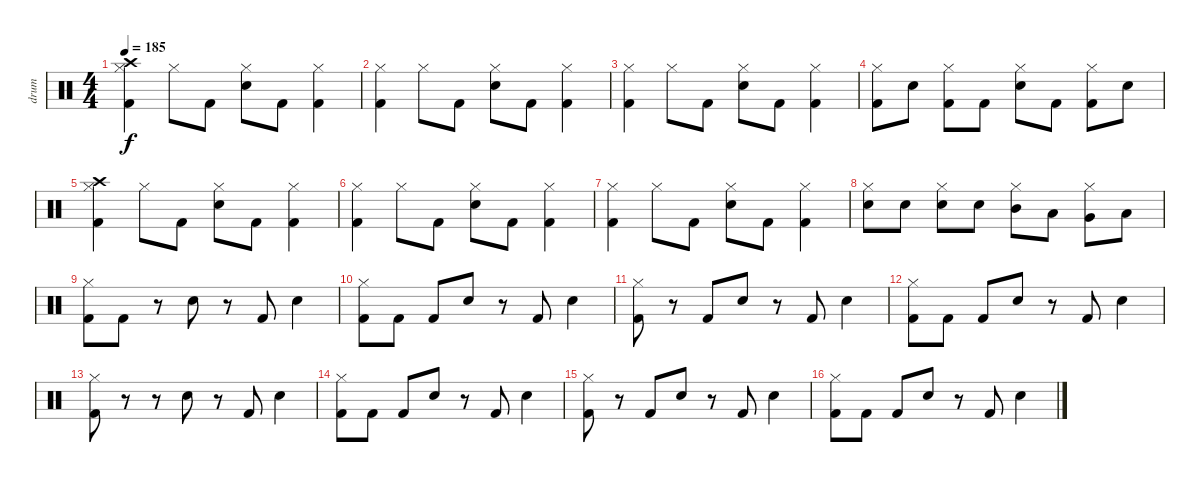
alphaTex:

\track ("drum" "drum") {instrument percussion}
\staff {score}
\articulation defaults
\ts (4 4)
\tempo 185
\clef neutral
\ks c
("Hi-Hat (closed)" "Crash high (hit)" "Kick (hit) 2").4{dy f} "Hi-Hat (closed)".8 "Kick (hit) 2".8 ("Hi-Hat (closed)" "Electric Snare (hit)").8 "Kick (hit) 2".8 ("Hi-Hat (closed)" "Kick (hit) 2").4 |
("Hi-Hat (closed)" "Kick (hit) 2").4 "Hi-Hat (closed)".8 "Kick (hit) 2".8 ("Hi-Hat (closed)" "Electric Snare (hit)").8 "Kick (hit) 2".8 ("Hi-Hat (closed)" "Kick (hit) 2").4 |
("Hi-Hat (closed)" "Kick (hit) 2").4 "Hi-Hat (closed)".8 "Kick (hit) 2".8 ("Hi-Hat (closed)" "Electric Snare (hit)").8 "Kick (hit) 2".8 ("Hi-Hat (closed)" "Kick (hit) 2").4 |
("Hi-Hat (closed)" "Kick (hit) 2").8 "Electric Snare (hit)".8 ("Hi-Hat (closed)" "Kick (hit) 2").8 "Kick (hit) 2".8 ("Hi-Hat (closed)" "Electric Snare (hit)").8 "Kick (hit) 2".8 ("Hi-Hat (closed)" "Kick (hit) 2").8 "Electric Snare (hit)".8 |
("Hi-Hat (closed)" "Crash high (hit)" "Kick (hit) 2").4 "Hi-Hat (closed)".8 "Kick (hit) 2".8 ("Hi-Hat (closed)" "Electric Snare (hit)").8 "Kick (hit) 2".8 ("Hi-Hat (closed)" "Kick (hit) 2").4 |
("Hi-Hat (closed)" "Kick (hit) 2").4 "Hi-Hat (closed)".8 "Kick (hit) 2".8 ("Hi-Hat (closed)" "Electric Snare (hit)").8 "Kick (hit) 2".8 ("Hi-Hat (closed)" "Kick (hit) 2").4 |
("Hi-Hat (closed)" "Kick (hit) 2").4 "Hi-Hat (closed)".8 "Kick (hit) 2".8 ("Hi-Hat (closed)" "Electric Snare (hit)").8 "Kick (hit) 2".8 ("Hi-Hat (closed)" "Kick (hit) 2").4 |
("Hi-Hat (closed)" "Electric Snare (hit)").8 "Electric Snare (hit)".8 ("Hi-Hat (closed)" "Electric Snare (hit)").8 "Electric Snare (hit)".8 ("Hi-Hat (closed)" "Mid Tom (hit)").8 "Low Tom (hit)".8 ("Hi-Hat (closed)" "Very Low Tom (hit)").8 "Low Floor Tom (hit)".8 |
("Hi-Hat (closed)" "Kick (hit) 2").8 "Kick (hit) 2".8 r.8 "Electric Snare (hit)".8 r.8 "Kick (hit) 2".8 "Electric Snare (hit)".4 |
("Hi-Hat (closed)" "Kick (hit) 2").8 "Kick (hit) 2".8 "Kick (hit) 2".8 "Electric Snare (hit)".8 r.8 "Kick (hit) 2".8 "Electric Snare (hit)".4 |
("Hi-Hat (closed)" "Kick (hit) 2").8 r.8 "Kick (hit) 2".8 "Electric Snare (hit)".8 r.8 "Kick (hit) 2".8 "Electric Snare (hit)".4 |
("Hi-Hat (closed)" "Kick (hit) 2").8 "Kick (hit) 2".8 "Kick (hit) 2".8 "Electric Snare (hit)".8 r.8 "Kick (hit) 2".8 "Electric Snare (hit)".4 |
("Hi-Hat (closed)" "Kick (hit) 2").8 r.8 r.8 "Electric Snare (hit)".8 r.8 "Kick (hit) 2".8 "Electric Snare (hit)".4 |
("Hi-Hat (closed)" "Kick (hit) 2").8 "Kick (hit) 2".8 "Kick (hit) 2".8 "Electric Snare (hit)".8 r.8 "Kick (hit) 2".8 "Electric Snare (hit)".4 |
("Hi-Hat (closed)" "Kick (hit) 2").8 r.8 "Kick (hit) 2".8 "Electric Snare (hit)".8 r.8 "Kick (hit) 2".8 "Electric Snare (hit)".4 |
("Hi-Hat (closed)" "Kick (hit) 2").8 "Kick (hit) 2".8 "Kick (hit) 2".8 "Electric Snare (hit)".8 r.8 "Kick (hit) 2".8 "Electric Snare (hit)".4
